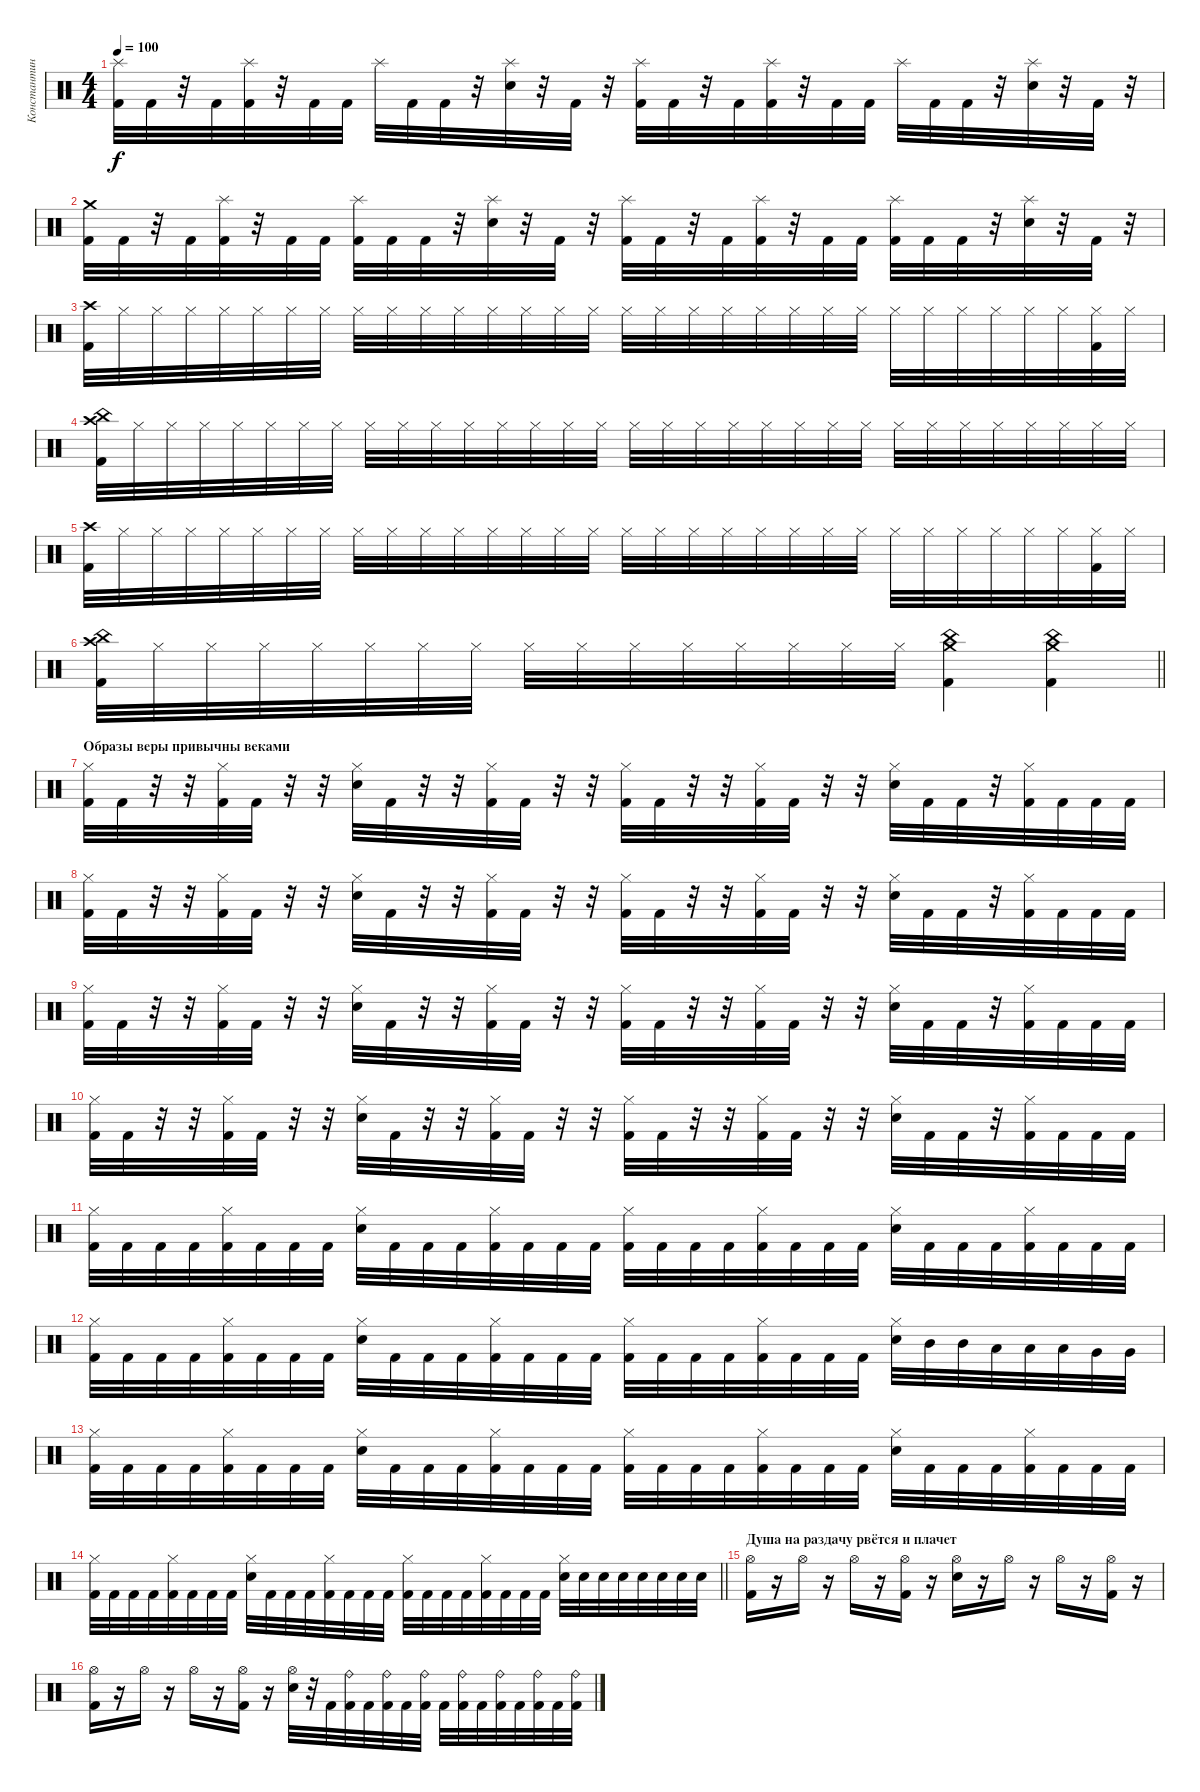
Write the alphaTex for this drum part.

\track ("Константин \"Салян\" Сальников" "Константин") {instrument percussion}
\staff {score}
\articulation defaults
\ts (4 4)
\tempo 100
\clef neutral
\ks c
("Splash (hit)" "Kick (hit) 2").32{dy f} "Kick (hit) 2".32 r.32 "Kick (hit) 2".32 ("Splash (hit)" "Kick (hit) 2").32 r.32 "Kick (hit) 2".32 "Kick (hit) 2".32 "Splash (hit)".32 "Kick (hit) 2".32 "Kick (hit) 2".32 r.32 ("Splash (hit)" "Electric Snare (hit)").32 r.32 "Kick (hit) 2".32 r.32 ("Splash (hit)" "Kick (hit) 2").32 "Kick (hit) 2".32 r.32 "Kick (hit) 2".32 ("Splash (hit)" "Kick (hit) 2").32 r.32 "Kick (hit) 2".32 "Kick (hit) 2".32 "Splash (hit)".32 "Kick (hit) 2".32 "Kick (hit) 2".32 r.32 ("Splash (hit)" "Electric Snare (hit)").32 r.32 "Kick (hit) 2".32 r.32 |
("Crash medium (hit)" "Kick (hit) 2").32 "Kick (hit) 2".32 r.32 "Kick (hit) 2".32 ("Splash (hit)" "Kick (hit) 2").32 r.32 "Kick (hit) 2".32 "Kick (hit) 2".32 ("Splash (hit)" "Kick (hit) 2").32 "Kick (hit) 2".32 "Kick (hit) 2".32 r.32 ("Splash (hit)" "Electric Snare (hit)").32 r.32 "Kick (hit) 2".32 r.32 ("Splash (hit)" "Kick (hit) 2").32 "Kick (hit) 2".32 r.32 "Kick (hit) 2".32 ("Splash (hit)" "Kick (hit) 2").32 r.32 "Kick (hit) 2".32 "Kick (hit) 2".32 ("Splash (hit)" "Kick (hit) 2").32 "Kick (hit) 2".32 "Kick (hit) 2".32 r.32 ("Splash (hit)" "Electric Snare (hit)").32 r.32 "Kick (hit) 2".32 r.32 |
("Crash high (hit)" "Kick (hit) 2").32 "Hi-Hat (closed)".32 "Hi-Hat (closed)".32 "Hi-Hat (closed)".32 "Hi-Hat (closed)".32 "Hi-Hat (closed)".32 "Hi-Hat (closed)".32 "Hi-Hat (closed)".32 "Hi-Hat (closed)".32 "Hi-Hat (closed)".32 "Hi-Hat (closed)".32 "Hi-Hat (closed)".32 "Hi-Hat (closed)".32 "Hi-Hat (closed)".32 "Hi-Hat (closed)".32 "Hi-Hat (closed)".32 "Hi-Hat (closed)".32 "Hi-Hat (closed)".32 "Hi-Hat (closed)".32 "Hi-Hat (closed)".32 "Hi-Hat (closed)".32 "Hi-Hat (closed)".32 "Hi-Hat (closed)".32 "Hi-Hat (closed)".32 "Hi-Hat (closed)".32 "Hi-Hat (closed)".32 "Hi-Hat (closed)".32 "Hi-Hat (closed)".32 "Hi-Hat (closed)".32 "Hi-Hat (closed)".32 ("Hi-Hat (closed)" "Kick (hit) 2").32 "Hi-Hat (closed)".32 |
("Crash high (hit)" "Kick (hit) 2" "China (hit)").32 "Hi-Hat (closed)".32 "Hi-Hat (closed)".32 "Hi-Hat (closed)".32 "Hi-Hat (closed)".32 "Hi-Hat (closed)".32 "Hi-Hat (closed)".32 "Hi-Hat (closed)".32 "Hi-Hat (closed)".32 "Hi-Hat (closed)".32 "Hi-Hat (closed)".32 "Hi-Hat (closed)".32 "Hi-Hat (closed)".32 "Hi-Hat (closed)".32 "Hi-Hat (closed)".32 "Hi-Hat (closed)".32 "Hi-Hat (closed)".32 "Hi-Hat (closed)".32 "Hi-Hat (closed)".32 "Hi-Hat (closed)".32 "Hi-Hat (closed)".32 "Hi-Hat (closed)".32 "Hi-Hat (closed)".32 "Hi-Hat (closed)".32 "Hi-Hat (closed)".32 "Hi-Hat (closed)".32 "Hi-Hat (closed)".32 "Hi-Hat (closed)".32 "Hi-Hat (closed)".32 "Hi-Hat (closed)".32 "Hi-Hat (closed)".32 "Hi-Hat (closed)".32 |
("Crash high (hit)" "Kick (hit) 2").32 "Hi-Hat (closed)".32 "Hi-Hat (closed)".32 "Hi-Hat (closed)".32 "Hi-Hat (closed)".32 "Hi-Hat (closed)".32 "Hi-Hat (closed)".32 "Hi-Hat (closed)".32 "Hi-Hat (closed)".32 "Hi-Hat (closed)".32 "Hi-Hat (closed)".32 "Hi-Hat (closed)".32 "Hi-Hat (closed)".32 "Hi-Hat (closed)".32 "Hi-Hat (closed)".32 "Hi-Hat (closed)".32 "Hi-Hat (closed)".32 "Hi-Hat (closed)".32 "Hi-Hat (closed)".32 "Hi-Hat (closed)".32 "Hi-Hat (closed)".32 "Hi-Hat (closed)".32 "Hi-Hat (closed)".32 "Hi-Hat (closed)".32 "Hi-Hat (closed)".32 "Hi-Hat (closed)".32 "Hi-Hat (closed)".32 "Hi-Hat (closed)".32 "Hi-Hat (closed)".32 "Hi-Hat (closed)".32 ("Hi-Hat (closed)" "Kick (hit) 2").32 "Hi-Hat (closed)".32 |
\barLineRight lightlight
("Crash high (hit)" "Kick (hit) 2" "China (hit)").32 "Hi-Hat (closed)".32 "Hi-Hat (closed)".32 "Hi-Hat (closed)".32 "Hi-Hat (closed)".32 "Hi-Hat (closed)".32 "Hi-Hat (closed)".32 "Hi-Hat (closed)".32 "Hi-Hat (closed)".32 "Hi-Hat (closed)".32 "Hi-Hat (closed)".32 "Hi-Hat (closed)".32 "Hi-Hat (closed)".32 "Hi-Hat (closed)".32 "Hi-Hat (closed)".32 "Hi-Hat (closed)".32 ("China (hit)" "Kick (hit) 2" "Crash medium (hit)").4 ("China (hit)" "Kick (hit) 2" "Crash medium (hit)").4 |
\section ("" "Образы веры привычны веками")
("Hi-Hat (closed)" "Kick (hit) 2").32 "Kick (hit) 2".32 r.32 r.32 ("Hi-Hat (closed)" "Kick (hit) 2").32 "Kick (hit) 2".32 r.32 r.32 ("Hi-Hat (closed)" "Electric Snare (hit)").32 "Kick (hit) 2".32 r.32 r.32 ("Hi-Hat (closed)" "Kick (hit) 2").32 "Kick (hit) 2".32 r.32 r.32 ("Hi-Hat (closed)" "Kick (hit) 2").32 "Kick (hit) 2".32 r.32 r.32 ("Hi-Hat (closed)" "Kick (hit) 2").32 "Kick (hit) 2".32 r.32 r.32 ("Hi-Hat (closed)" "Electric Snare (hit)").32 "Kick (hit) 2".32 "Kick (hit) 2".32 r.32 ("Hi-Hat (closed)" "Kick (hit) 2").32 "Kick (hit) 2".32 "Kick (hit) 2".32 "Kick (hit) 2".32 |
("Hi-Hat (closed)" "Kick (hit) 2").32 "Kick (hit) 2".32 r.32 r.32 ("Hi-Hat (closed)" "Kick (hit) 2").32 "Kick (hit) 2".32 r.32 r.32 ("Hi-Hat (closed)" "Electric Snare (hit)").32 "Kick (hit) 2".32 r.32 r.32 ("Hi-Hat (closed)" "Kick (hit) 2").32 "Kick (hit) 2".32 r.32 r.32 ("Hi-Hat (closed)" "Kick (hit) 2").32 "Kick (hit) 2".32 r.32 r.32 ("Hi-Hat (closed)" "Kick (hit) 2").32 "Kick (hit) 2".32 r.32 r.32 ("Hi-Hat (closed)" "Electric Snare (hit)").32 "Kick (hit) 2".32 "Kick (hit) 2".32 r.32 ("Hi-Hat (closed)" "Kick (hit) 2").32 "Kick (hit) 2".32 "Kick (hit) 2".32 "Kick (hit) 2".32 |
("Hi-Hat (closed)" "Kick (hit) 2").32 "Kick (hit) 2".32 r.32 r.32 ("Hi-Hat (closed)" "Kick (hit) 2").32 "Kick (hit) 2".32 r.32 r.32 ("Hi-Hat (closed)" "Electric Snare (hit)").32 "Kick (hit) 2".32 r.32 r.32 ("Hi-Hat (closed)" "Kick (hit) 2").32 "Kick (hit) 2".32 r.32 r.32 ("Hi-Hat (closed)" "Kick (hit) 2").32 "Kick (hit) 2".32 r.32 r.32 ("Hi-Hat (closed)" "Kick (hit) 2").32 "Kick (hit) 2".32 r.32 r.32 ("Hi-Hat (closed)" "Electric Snare (hit)").32 "Kick (hit) 2".32 "Kick (hit) 2".32 r.32 ("Hi-Hat (closed)" "Kick (hit) 2").32 "Kick (hit) 2".32 "Kick (hit) 2".32 "Kick (hit) 2".32 |
("Hi-Hat (closed)" "Kick (hit) 2").32 "Kick (hit) 2".32 r.32 r.32 ("Hi-Hat (closed)" "Kick (hit) 2").32 "Kick (hit) 2".32 r.32 r.32 ("Hi-Hat (closed)" "Electric Snare (hit)").32 "Kick (hit) 2".32 r.32 r.32 ("Hi-Hat (closed)" "Kick (hit) 2").32 "Kick (hit) 2".32 r.32 r.32 ("Hi-Hat (closed)" "Kick (hit) 2").32 "Kick (hit) 2".32 r.32 r.32 ("Hi-Hat (closed)" "Kick (hit) 2").32 "Kick (hit) 2".32 r.32 r.32 ("Hi-Hat (closed)" "Electric Snare (hit)").32 "Kick (hit) 2".32 "Kick (hit) 2".32 r.32 ("Hi-Hat (closed)" "Kick (hit) 2").32 "Kick (hit) 2".32 "Kick (hit) 2".32 "Kick (hit) 2".32 |
("Hi-Hat (closed)" "Kick (hit) 2").32 "Kick (hit) 2".32 "Kick (hit) 2".32 "Kick (hit) 2".32 ("Hi-Hat (closed)" "Kick (hit) 2").32 "Kick (hit) 2".32 "Kick (hit) 2".32 "Kick (hit) 2".32 ("Hi-Hat (closed)" "Electric Snare (hit)").32 "Kick (hit) 2".32 "Kick (hit) 2".32 "Kick (hit) 2".32 ("Hi-Hat (closed)" "Kick (hit) 2").32 "Kick (hit) 2".32 "Kick (hit) 2".32 "Kick (hit) 2".32 ("Hi-Hat (closed)" "Kick (hit) 2").32 "Kick (hit) 2".32 "Kick (hit) 2".32 "Kick (hit) 2".32 ("Hi-Hat (closed)" "Kick (hit) 2").32 "Kick (hit) 2".32 "Kick (hit) 2".32 "Kick (hit) 2".32 ("Hi-Hat (closed)" "Electric Snare (hit)").32 "Kick (hit) 2".32 "Kick (hit) 2".32 "Kick (hit) 2".32 ("Hi-Hat (closed)" "Kick (hit) 2").32 "Kick (hit) 2".32 "Kick (hit) 2".32 "Kick (hit) 2".32 |
("Hi-Hat (closed)" "Kick (hit) 2").32 "Kick (hit) 2".32 "Kick (hit) 2".32 "Kick (hit) 2".32 ("Hi-Hat (closed)" "Kick (hit) 2").32 "Kick (hit) 2".32 "Kick (hit) 2".32 "Kick (hit) 2".32 ("Hi-Hat (closed)" "Electric Snare (hit)").32 "Kick (hit) 2".32 "Kick (hit) 2".32 "Kick (hit) 2".32 ("Hi-Hat (closed)" "Kick (hit) 2").32 "Kick (hit) 2".32 "Kick (hit) 2".32 "Kick (hit) 2".32 ("Hi-Hat (closed)" "Kick (hit) 2").32 "Kick (hit) 2".32 "Kick (hit) 2".32 "Kick (hit) 2".32 ("Hi-Hat (closed)" "Kick (hit) 2").32 "Kick (hit) 2".32 "Kick (hit) 2".32 "Kick (hit) 2".32 ("Hi-Hat (closed)" "Electric Snare (hit)").32 "Mid Tom (hit)".32 "Mid Tom (hit)".32 "Low Tom (hit)".32 "Low Tom (hit)".32 "Low Tom (hit)".32 "Very Low Tom (hit)".32 "Very Low Tom (hit)".32 |
("Hi-Hat (closed)" "Kick (hit) 2").32 "Kick (hit) 2".32 "Kick (hit) 2".32 "Kick (hit) 2".32 ("Hi-Hat (closed)" "Kick (hit) 2").32 "Kick (hit) 2".32 "Kick (hit) 2".32 "Kick (hit) 2".32 ("Hi-Hat (closed)" "Electric Snare (hit)").32 "Kick (hit) 2".32 "Kick (hit) 2".32 "Kick (hit) 2".32 ("Hi-Hat (closed)" "Kick (hit) 2").32 "Kick (hit) 2".32 "Kick (hit) 2".32 "Kick (hit) 2".32 ("Hi-Hat (closed)" "Kick (hit) 2").32 "Kick (hit) 2".32 "Kick (hit) 2".32 "Kick (hit) 2".32 ("Hi-Hat (closed)" "Kick (hit) 2").32 "Kick (hit) 2".32 "Kick (hit) 2".32 "Kick (hit) 2".32 ("Hi-Hat (closed)" "Electric Snare (hit)").32 "Kick (hit) 2".32 "Kick (hit) 2".32 "Kick (hit) 2".32 ("Hi-Hat (closed)" "Kick (hit) 2").32 "Kick (hit) 2".32 "Kick (hit) 2".32 "Kick (hit) 2".32 |
\barLineRight lightlight
("Hi-Hat (closed)" "Kick (hit) 2").32 "Kick (hit) 2".32 "Kick (hit) 2".32 "Kick (hit) 2".32 ("Hi-Hat (closed)" "Kick (hit) 2").32 "Kick (hit) 2".32 "Kick (hit) 2".32 "Kick (hit) 2".32 ("Hi-Hat (closed)" "Electric Snare (hit)").32 "Kick (hit) 2".32 "Kick (hit) 2".32 "Kick (hit) 2".32 ("Hi-Hat (closed)" "Kick (hit) 2").32 "Kick (hit) 2".32 "Kick (hit) 2".32 "Kick (hit) 2".32 ("Hi-Hat (closed)" "Kick (hit) 2").32 "Kick (hit) 2".32 "Kick (hit) 2".32 "Kick (hit) 2".32 ("Hi-Hat (closed)" "Kick (hit) 2").32 "Kick (hit) 2".32 "Kick (hit) 2".32 "Kick (hit) 2".32 ("Hi-Hat (closed)" "Electric Snare (hit)").32 "Electric Snare (hit)".32 "Electric Snare (hit)".32 "Electric Snare (hit)".32 "Electric Snare (hit)".32 "Electric Snare (hit)".32 "Electric Snare (hit)".32 "Electric Snare (hit)".32 |
\section ("" "Душа на раздачу рвётся и плачет")
("Hi-Hat (open)" "Kick (hit) 2").16 r.16 "Hi-Hat (open)".16 r.16 "Hi-Hat (open)".16 r.16 ("Hi-Hat (open)" "Kick (hit) 2").16 r.16 ("Hi-Hat (open)" "Electric Snare (hit)").16 r.16 "Hi-Hat (open)".16 r.16 "Hi-Hat (open)".16 r.16 ("Hi-Hat (open)" "Kick (hit) 2").16 r.16 |
("Hi-Hat (open)" "Kick (hit) 2").16 r.16 "Hi-Hat (open)".16 r.16 "Hi-Hat (open)".16 r.16 ("Hi-Hat (open)" "Kick (hit) 2").16 r.16 ("Hi-Hat (open)" "Electric Snare (hit)").32 r.32 "Kick (hit) 2".32 ("Ride (bell)" "Kick (hit) 2").32 "Kick (hit) 2".32 ("Ride (bell)" "Kick (hit) 2").32 "Kick (hit) 2".32 ("Ride (bell)" "Kick (hit) 2").32 "Kick (hit) 2".32 ("Ride (bell)" "Kick (hit) 2").32 "Kick (hit) 2".32 ("Ride (bell)" "Kick (hit) 2").32 "Kick (hit) 2".32 ("Ride (bell)" "Kick (hit) 2").32 "Kick (hit) 2".32 ("Ride (bell)" "Kick (hit) 2").32
